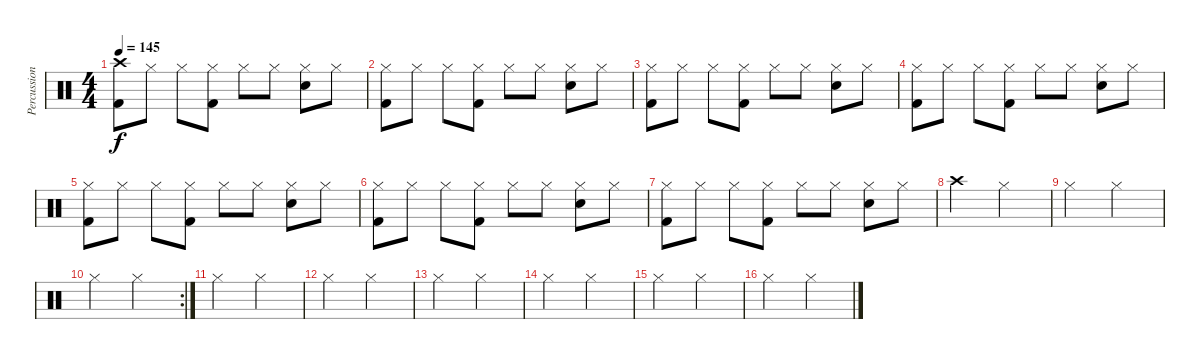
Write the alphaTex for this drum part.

\track ("Percussion" "Percussion") {instrument percussion}
\staff {score}
\articulation defaults
\ts (4 4)
\tempo 145
\clef neutral
\ks c
("Crash high (hit)" "Kick (hit) 2").8{dy f} "Hi-Hat (closed)".8 "Hi-Hat (closed)".8 ("Hi-Hat (closed)" "Kick (hit) 2").8 "Hi-Hat (closed)".8 "Hi-Hat (closed)".8 ("Hi-Hat (closed)" "Snare (hit) 2").8 "Hi-Hat (closed)".8 |
("Hi-Hat (closed)" "Kick (hit) 2").8 "Hi-Hat (closed)".8 "Hi-Hat (closed)".8 ("Hi-Hat (closed)" "Kick (hit) 2").8 "Hi-Hat (closed)".8 "Hi-Hat (closed)".8 ("Hi-Hat (closed)" "Snare (hit) 2").8 "Hi-Hat (closed)".8 |
("Hi-Hat (closed)" "Kick (hit) 2").8 "Hi-Hat (closed)".8 "Hi-Hat (closed)".8 ("Hi-Hat (closed)" "Kick (hit) 2").8 "Hi-Hat (closed)".8 "Hi-Hat (closed)".8 ("Hi-Hat (closed)" "Snare (hit) 2").8 "Hi-Hat (closed)".8 |
("Hi-Hat (closed)" "Kick (hit) 2").8 "Hi-Hat (closed)".8 "Hi-Hat (closed)".8 ("Hi-Hat (closed)" "Kick (hit) 2").8 "Hi-Hat (closed)".8 "Hi-Hat (closed)".8 ("Hi-Hat (closed)" "Snare (hit) 2").8 "Hi-Hat (closed)".8 |
("Hi-Hat (closed)" "Kick (hit) 2").8 "Hi-Hat (closed)".8 "Hi-Hat (closed)".8 ("Hi-Hat (closed)" "Kick (hit) 2").8 "Hi-Hat (closed)".8 "Hi-Hat (closed)".8 ("Hi-Hat (closed)" "Snare (hit) 2").8 "Hi-Hat (closed)".8 |
("Hi-Hat (closed)" "Kick (hit) 2").8 "Hi-Hat (closed)".8 "Hi-Hat (closed)".8 ("Hi-Hat (closed)" "Kick (hit) 2").8 "Hi-Hat (closed)".8 "Hi-Hat (closed)".8 ("Hi-Hat (closed)" "Snare (hit) 2").8 "Hi-Hat (closed)".8 |
("Hi-Hat (closed)" "Kick (hit) 2").8 "Hi-Hat (closed)".8 "Hi-Hat (closed)".8 ("Hi-Hat (closed)" "Kick (hit) 2").8 "Hi-Hat (closed)".8 "Hi-Hat (closed)".8 ("Hi-Hat (closed)" "Snare (hit) 2").8 "Hi-Hat (closed)".8 |
"Crash high (hit)".2 "Hi-Hat (closed)".2 |
"Hi-Hat (closed)".2 "Hi-Hat (closed)".2 |
\rc 2 "Hi-Hat (closed)".2 "Hi-Hat (closed)".2
|
"Hi-Hat (closed)".2 "Hi-Hat (closed)".2 |
"Hi-Hat (closed)".2 "Hi-Hat (closed)".2 |
"Hi-Hat (closed)".2 "Hi-Hat (closed)".2 |
"Hi-Hat (closed)".2 "Hi-Hat (closed)".2 |
"Hi-Hat (closed)".2 "Hi-Hat (closed)".2 |
"Hi-Hat (closed)".2 "Hi-Hat (closed)".2
